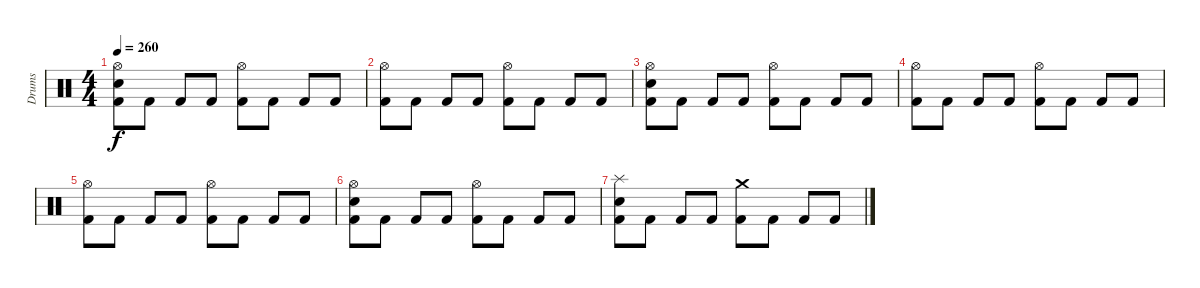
\track ("Drums" "Drums") {instrument percussion}
\staff {score}
\articulation defaults
\ts (4 4)
\tempo 260
\clef neutral
\ks c
("Hi-Hat (open)" "Snare (hit) 2" "Kick (hit) 2").8{dy f} "Kick (hit) 2".8 "Kick (hit) 2".8 "Kick (hit) 2".8 ("Hi-Hat (open)" "Kick (hit) 2").8 "Kick (hit) 2".8 "Kick (hit) 2".8 "Kick (hit) 2".8 |
("Hi-Hat (open)" "Kick (hit) 2").8 "Kick (hit) 2".8 "Kick (hit) 2".8 "Kick (hit) 2".8 ("Hi-Hat (open)" "Kick (hit) 2").8 "Kick (hit) 2".8 "Kick (hit) 2".8 "Kick (hit) 2".8 |
("Hi-Hat (open)" "Snare (hit) 2" "Kick (hit) 2").8 "Kick (hit) 2".8 "Kick (hit) 2".8 "Kick (hit) 2".8 ("Hi-Hat (open)" "Kick (hit) 2").8 "Kick (hit) 2".8 "Kick (hit) 2".8 "Kick (hit) 2".8 |
("Hi-Hat (open)" "Kick (hit) 2").8{volume 0} "Kick (hit) 2".8 "Kick (hit) 2".8 "Kick (hit) 2".8 ("Hi-Hat (open)" "Kick (hit) 2").8 "Kick (hit) 2".8 "Kick (hit) 2".8 "Kick (hit) 2".8 |
("Hi-Hat (open)" "Kick (hit) 2").8 "Kick (hit) 2".8 "Kick (hit) 2".8 "Kick (hit) 2".8 ("Hi-Hat (open)" "Kick (hit) 2").8 "Kick (hit) 2".8 "Kick (hit) 2".8 "Kick (hit) 2".8 |
("Hi-Hat (open)" "Snare (hit) 2" "Kick (hit) 2").8 "Kick (hit) 2".8 "Kick (hit) 2".8 "Kick (hit) 2".8 ("Hi-Hat (open)" "Kick (hit) 2").8 "Kick (hit) 2".8 "Kick (hit) 2".8 "Kick (hit) 2".8 |
("Splash (hit)" "Snare (hit) 2" "Kick (hit) 2").8 "Kick (hit) 2".8 "Kick (hit) 2".8 "Kick (hit) 2".8 ("Crash medium (hit)" "Kick (hit) 2").8 "Kick (hit) 2".8 "Kick (hit) 2".8 "Kick (hit) 2".8
